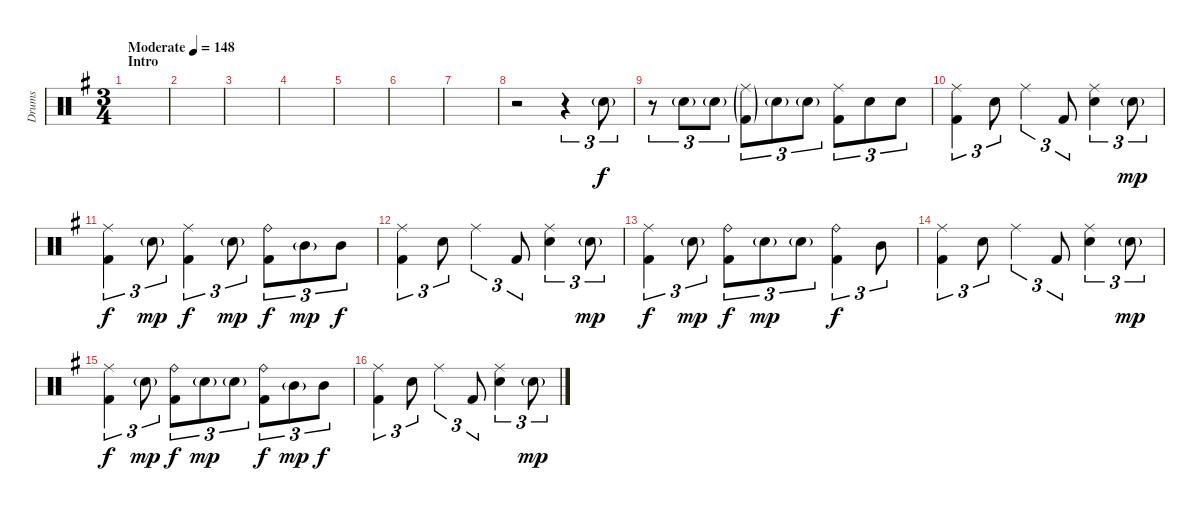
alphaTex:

\track ("Drums" "Drums") {instrument percussion}
\staff {score}
\articulation defaults
\ts (3 4)
\section ("" "Intro")
\tempo (148 "Moderate")
\clef neutral
\ks g
|
|
|
|
|
|
|
r.2 r.4{tu (3 2)} "Electric Snare (hit)"{g}.8{tu (3 2)} |
r.8{tu (3 2)} "Electric Snare (hit)"{g}.8{tu (3 2)} "Electric Snare (hit)"{g}.8{tu (3 2)} ("Ride (middle)"{g} "Kick (hit) 2"{g}).8{tu (3 2)} "Electric Snare (hit)"{g}.8{tu (3 2)} "Electric Snare (hit)"{g}.8{tu (3 2)} ("Ride (middle)" "Kick (hit) 2").8{tu (3 2) dy f} "Electric Snare (hit)".8{tu (3 2)} "Electric Snare (hit)".8{tu (3 2)} |
("Ride (middle)" "Kick (hit) 2").4{tu (3 2)} "Electric Snare (hit)".8{tu (3 2)} "Ride (middle)".4{tu (3 2)} "Kick (hit) 2".8{tu (3 2)} ("Ride (middle)" "Electric Snare (hit)").4{tu (3 2)} "Electric Snare (hit)"{g}.8{tu (3 2) dy mp} |
("Ride (middle)" "Kick (hit) 2").4{tu (3 2) dy f} "Electric Snare (hit)"{g}.8{tu (3 2) dy mp} ("Ride (middle)" "Kick (hit) 2").4{tu (3 2) dy f} "Electric Snare (hit)"{g}.8{tu (3 2) dy mp} ("Ride (bell)" "Kick (hit) 2").8{tu (3 2) dy f} "Mid Tom (hit)"{g}.8{tu (3 2) dy mp} "Mid Tom (hit)".8{tu (3 2) dy f} |
("Ride (middle)" "Kick (hit) 2").4{tu (3 2)} "Electric Snare (hit)".8{tu (3 2)} "Ride (middle)".4{tu (3 2)} "Kick (hit) 2".8{tu (3 2)} ("Ride (middle)" "Electric Snare (hit)").4{tu (3 2)} "Electric Snare (hit)"{g}.8{tu (3 2) dy mp} |
("Ride (middle)" "Kick (hit) 2").4{tu (3 2) dy f} "Electric Snare (hit)"{g}.8{tu (3 2) dy mp} ("Ride (bell)" "Kick (hit) 2").8{tu (3 2) dy f} "Electric Snare (hit)"{g}.8{tu (3 2) dy mp} "Electric Snare (hit)"{g}.8{tu (3 2)} ("Ride (bell)" "Kick (hit) 2").4{tu (3 2) dy f} "Mid Tom (hit)".8{tu (3 2)} |
("Ride (middle)" "Kick (hit) 2").4{tu (3 2)} "Electric Snare (hit)".8{tu (3 2)} "Ride (middle)".4{tu (3 2)} "Kick (hit) 2".8{tu (3 2)} ("Ride (middle)" "Electric Snare (hit)").4{tu (3 2)} "Electric Snare (hit)"{g}.8{tu (3 2) dy mp} |
("Ride (middle)" "Kick (hit) 2").4{tu (3 2) dy f} "Electric Snare (hit)"{g}.8{tu (3 2) dy mp} ("Ride (bell)" "Kick (hit) 2").8{tu (3 2) dy f} "Electric Snare (hit)"{g}.8{tu (3 2) dy mp} "Electric Snare (hit)"{g}.8{tu (3 2)} ("Ride (bell)" "Kick (hit) 2").8{tu (3 2) dy f} "Mid Tom (hit)"{g}.8{tu (3 2) dy mp} "Mid Tom (hit)".8{tu (3 2) dy f} |
("Ride (middle)" "Kick (hit) 2").4{tu (3 2)} "Electric Snare (hit)".8{tu (3 2)} "Ride (middle)".4{tu (3 2)} "Kick (hit) 2".8{tu (3 2)} ("Ride (middle)" "Electric Snare (hit)").4{tu (3 2)} "Electric Snare (hit)"{g}.8{tu (3 2) dy mp}
